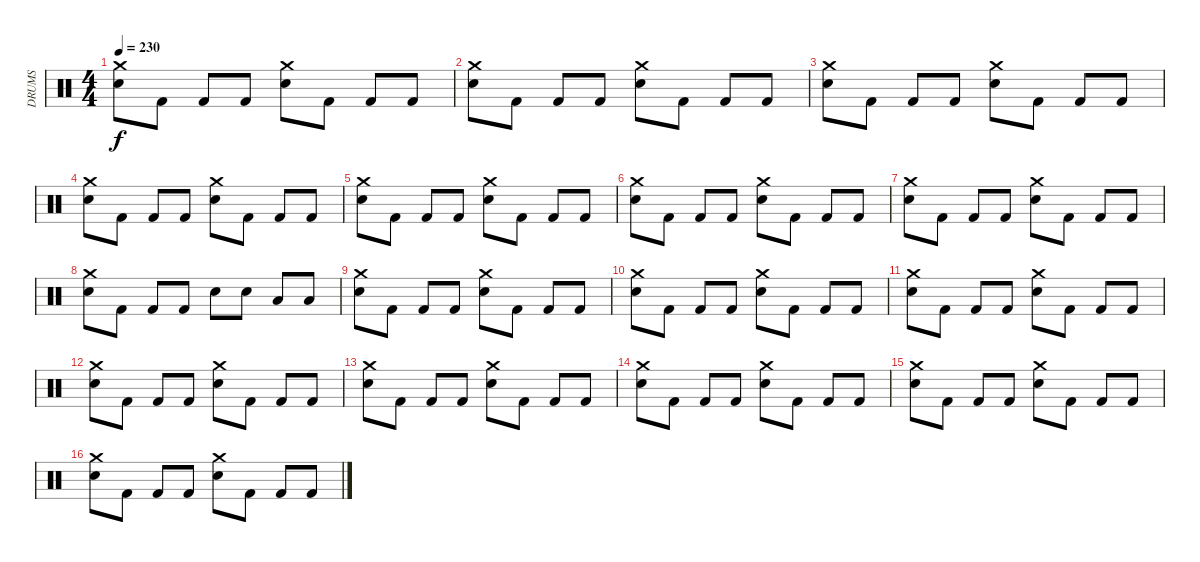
\track ("DRUMS" "DRUMS") {instrument percussion}
\staff {score}
\articulation defaults
\ts (4 4)
\tempo 230
\clef neutral
\ks c
("Crash medium (hit)" "Electric Snare (hit)").8{dy f} "Kick (hit) 2".8 "Kick (hit) 2".8 "Kick (hit) 2".8 ("Crash medium (hit)" "Electric Snare (hit)").8 "Kick (hit) 2".8 "Kick (hit) 2".8 "Kick (hit) 2".8 |
("Crash medium (hit)" "Electric Snare (hit)").8 "Kick (hit) 2".8 "Kick (hit) 2".8 "Kick (hit) 2".8 ("Crash medium (hit)" "Electric Snare (hit)").8 "Kick (hit) 2".8 "Kick (hit) 2".8 "Kick (hit) 2".8 |
("Crash medium (hit)" "Electric Snare (hit)").8 "Kick (hit) 2".8 "Kick (hit) 2".8 "Kick (hit) 2".8 ("Crash medium (hit)" "Electric Snare (hit)").8 "Kick (hit) 2".8 "Kick (hit) 2".8 "Kick (hit) 2".8 |
("Crash medium (hit)" "Electric Snare (hit)").8 "Kick (hit) 2".8 "Kick (hit) 2".8 "Kick (hit) 2".8 ("Crash medium (hit)" "Electric Snare (hit)").8 "Kick (hit) 2".8 "Kick (hit) 2".8 "Kick (hit) 2".8 |
("Crash medium (hit)" "Electric Snare (hit)").8 "Kick (hit) 2".8 "Kick (hit) 2".8 "Kick (hit) 2".8 ("Crash medium (hit)" "Electric Snare (hit)").8 "Kick (hit) 2".8 "Kick (hit) 2".8 "Kick (hit) 2".8 |
("Crash medium (hit)" "Electric Snare (hit)").8 "Kick (hit) 2".8 "Kick (hit) 2".8 "Kick (hit) 2".8 ("Crash medium (hit)" "Electric Snare (hit)").8 "Kick (hit) 2".8 "Kick (hit) 2".8 "Kick (hit) 2".8 |
("Crash medium (hit)" "Electric Snare (hit)").8 "Kick (hit) 2".8 "Kick (hit) 2".8 "Kick (hit) 2".8 ("Crash medium (hit)" "Electric Snare (hit)").8 "Kick (hit) 2".8 "Kick (hit) 2".8 "Kick (hit) 2".8 |
("Crash medium (hit)" "Electric Snare (hit)").8 "Kick (hit) 2".8 "Kick (hit) 2".8 "Kick (hit) 2".8 "Electric Snare (hit)".8 "Electric Snare (hit)".8 "Low Tom (hit)".8 "Low Tom (hit)".8 |
("Crash medium (hit)" "Electric Snare (hit)").8 "Kick (hit) 2".8 "Kick (hit) 2".8 "Kick (hit) 2".8 ("Crash medium (hit)" "Electric Snare (hit)").8 "Kick (hit) 2".8 "Kick (hit) 2".8 "Kick (hit) 2".8 |
("Crash medium (hit)" "Electric Snare (hit)").8 "Kick (hit) 2".8 "Kick (hit) 2".8 "Kick (hit) 2".8 ("Crash medium (hit)" "Electric Snare (hit)").8 "Kick (hit) 2".8 "Kick (hit) 2".8 "Kick (hit) 2".8 |
("Crash medium (hit)" "Electric Snare (hit)").8 "Kick (hit) 2".8 "Kick (hit) 2".8 "Kick (hit) 2".8 ("Crash medium (hit)" "Electric Snare (hit)").8 "Kick (hit) 2".8 "Kick (hit) 2".8 "Kick (hit) 2".8 |
("Crash medium (hit)" "Electric Snare (hit)").8 "Kick (hit) 2".8 "Kick (hit) 2".8 "Kick (hit) 2".8 ("Crash medium (hit)" "Electric Snare (hit)").8 "Kick (hit) 2".8 "Kick (hit) 2".8 "Kick (hit) 2".8 |
("Crash medium (hit)" "Electric Snare (hit)").8 "Kick (hit) 2".8 "Kick (hit) 2".8 "Kick (hit) 2".8 ("Crash medium (hit)" "Electric Snare (hit)").8 "Kick (hit) 2".8 "Kick (hit) 2".8 "Kick (hit) 2".8 |
("Crash medium (hit)" "Electric Snare (hit)").8 "Kick (hit) 2".8 "Kick (hit) 2".8 "Kick (hit) 2".8 ("Crash medium (hit)" "Electric Snare (hit)").8 "Kick (hit) 2".8 "Kick (hit) 2".8 "Kick (hit) 2".8 |
("Crash medium (hit)" "Electric Snare (hit)").8 "Kick (hit) 2".8 "Kick (hit) 2".8 "Kick (hit) 2".8 ("Crash medium (hit)" "Electric Snare (hit)").8 "Kick (hit) 2".8 "Kick (hit) 2".8 "Kick (hit) 2".8 |
("Crash medium (hit)" "Electric Snare (hit)").8 "Kick (hit) 2".8 "Kick (hit) 2".8 "Kick (hit) 2".8 ("Crash medium (hit)" "Electric Snare (hit)").8 "Kick (hit) 2".8 "Kick (hit) 2".8 "Kick (hit) 2".8
